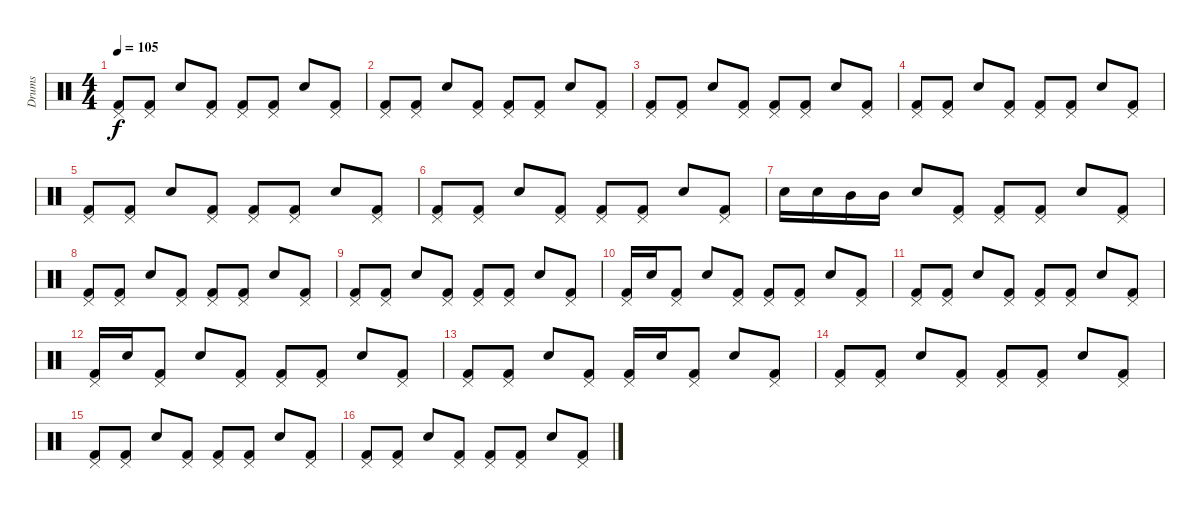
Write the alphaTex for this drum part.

\track ("Drums" "Drums") {instrument percussion}
\staff {score}
\articulation defaults
\ts (4 4)
\tempo 105
\clef neutral
\ks c
("Kick (hit) 2" "Pedal Hi-Hat (hit)").8{dy f} ("Kick (hit) 2" "Pedal Hi-Hat (hit)").8 "Snare (hit) 2".8 ("Kick (hit) 2" "Pedal Hi-Hat (hit)").8 ("Kick (hit) 2" "Pedal Hi-Hat (hit)").8 ("Kick (hit) 2" "Pedal Hi-Hat (hit)").8 "Snare (hit) 2".8 ("Kick (hit) 2" "Pedal Hi-Hat (hit)").8 |
("Kick (hit) 2" "Pedal Hi-Hat (hit)").8 ("Kick (hit) 2" "Pedal Hi-Hat (hit)").8 "Snare (hit) 2".8 ("Kick (hit) 2" "Pedal Hi-Hat (hit)").8 ("Kick (hit) 2" "Pedal Hi-Hat (hit)").8 ("Kick (hit) 2" "Pedal Hi-Hat (hit)").8 "Snare (hit) 2".8 ("Kick (hit) 2" "Pedal Hi-Hat (hit)").8 |
("Kick (hit) 2" "Pedal Hi-Hat (hit)").8 ("Kick (hit) 2" "Pedal Hi-Hat (hit)").8 "Snare (hit) 2".8 ("Kick (hit) 2" "Pedal Hi-Hat (hit)").8 ("Kick (hit) 2" "Pedal Hi-Hat (hit)").8 ("Kick (hit) 2" "Pedal Hi-Hat (hit)").8 "Snare (hit) 2".8 ("Kick (hit) 2" "Pedal Hi-Hat (hit)").8 |
("Kick (hit) 2" "Pedal Hi-Hat (hit)").8 ("Kick (hit) 2" "Pedal Hi-Hat (hit)").8 "Snare (hit) 2".8 ("Kick (hit) 2" "Pedal Hi-Hat (hit)").8 ("Kick (hit) 2" "Pedal Hi-Hat (hit)").8 ("Kick (hit) 2" "Pedal Hi-Hat (hit)").8 "Snare (hit) 2".8 ("Kick (hit) 2" "Pedal Hi-Hat (hit)").8 |
("Kick (hit) 2" "Pedal Hi-Hat (hit)").8 ("Kick (hit) 2" "Pedal Hi-Hat (hit)").8 "Snare (hit) 2".8 ("Kick (hit) 2" "Pedal Hi-Hat (hit)").8 ("Kick (hit) 2" "Pedal Hi-Hat (hit)").8 ("Kick (hit) 2" "Pedal Hi-Hat (hit)").8 "Snare (hit) 2".8 ("Kick (hit) 2" "Pedal Hi-Hat (hit)").8 |
("Kick (hit) 2" "Pedal Hi-Hat (hit)").8 ("Kick (hit) 2" "Pedal Hi-Hat (hit)").8 "Snare (hit) 2".8 ("Kick (hit) 2" "Pedal Hi-Hat (hit)").8 ("Kick (hit) 2" "Pedal Hi-Hat (hit)").8 ("Kick (hit) 2" "Pedal Hi-Hat (hit)").8 "Snare (hit) 2".8 ("Kick (hit) 2" "Pedal Hi-Hat (hit)").8 |
"Electric Snare (hit)".16 "Electric Snare (hit)".16 "Mid Tom (hit)".16 "Mid Tom (hit)".16 "Snare (hit) 2".8 ("Kick (hit) 2" "Pedal Hi-Hat (hit)").8 ("Kick (hit) 2" "Pedal Hi-Hat (hit)").8 ("Kick (hit) 2" "Pedal Hi-Hat (hit)").8 "Snare (hit) 2".8 ("Kick (hit) 2" "Pedal Hi-Hat (hit)").8 |
("Kick (hit) 2" "Pedal Hi-Hat (hit)").8 ("Kick (hit) 2" "Pedal Hi-Hat (hit)").8 "Snare (hit) 2".8 ("Kick (hit) 2" "Pedal Hi-Hat (hit)").8 ("Kick (hit) 2" "Pedal Hi-Hat (hit)").8 ("Kick (hit) 2" "Pedal Hi-Hat (hit)").8 "Snare (hit) 2".8 ("Kick (hit) 2" "Pedal Hi-Hat (hit)").8 |
("Kick (hit) 2" "Pedal Hi-Hat (hit)").8 ("Kick (hit) 2" "Pedal Hi-Hat (hit)").8 "Snare (hit) 2".8 ("Kick (hit) 2" "Pedal Hi-Hat (hit)").8 ("Kick (hit) 2" "Pedal Hi-Hat (hit)").8 ("Kick (hit) 2" "Pedal Hi-Hat (hit)").8 "Snare (hit) 2".8 ("Kick (hit) 2" "Pedal Hi-Hat (hit)").8 |
("Kick (hit) 2" "Pedal Hi-Hat (hit)").16 "Snare (hit) 2".16 ("Kick (hit) 2" "Pedal Hi-Hat (hit)").8 "Snare (hit) 2".8 ("Kick (hit) 2" "Pedal Hi-Hat (hit)").8 ("Kick (hit) 2" "Pedal Hi-Hat (hit)").8 ("Kick (hit) 2" "Pedal Hi-Hat (hit)").8 "Snare (hit) 2".8 ("Kick (hit) 2" "Pedal Hi-Hat (hit)").8 |
("Kick (hit) 2" "Pedal Hi-Hat (hit)").8 ("Kick (hit) 2" "Pedal Hi-Hat (hit)").8 "Snare (hit) 2".8 ("Kick (hit) 2" "Pedal Hi-Hat (hit)").8 ("Kick (hit) 2" "Pedal Hi-Hat (hit)").8 ("Kick (hit) 2" "Pedal Hi-Hat (hit)").8 "Snare (hit) 2".8 ("Kick (hit) 2" "Pedal Hi-Hat (hit)").8 |
("Kick (hit) 2" "Pedal Hi-Hat (hit)").16 "Snare (hit) 2".16 ("Kick (hit) 2" "Pedal Hi-Hat (hit)").8 "Snare (hit) 2".8 ("Kick (hit) 2" "Pedal Hi-Hat (hit)").8 ("Kick (hit) 2" "Pedal Hi-Hat (hit)").8 ("Kick (hit) 2" "Pedal Hi-Hat (hit)").8 "Snare (hit) 2".8 ("Kick (hit) 2" "Pedal Hi-Hat (hit)").8 |
("Kick (hit) 2" "Pedal Hi-Hat (hit)").8 ("Kick (hit) 2" "Pedal Hi-Hat (hit)").8 "Snare (hit) 2".8 ("Kick (hit) 2" "Pedal Hi-Hat (hit)").8 ("Kick (hit) 2" "Pedal Hi-Hat (hit)").16 "Snare (hit) 2".16 ("Kick (hit) 2" "Pedal Hi-Hat (hit)").8 "Snare (hit) 2".8 ("Kick (hit) 2" "Pedal Hi-Hat (hit)").8 |
("Kick (hit) 2" "Pedal Hi-Hat (hit)").8 ("Kick (hit) 2" "Pedal Hi-Hat (hit)").8 "Snare (hit) 2".8 ("Kick (hit) 2" "Pedal Hi-Hat (hit)").8 ("Kick (hit) 2" "Pedal Hi-Hat (hit)").8 ("Kick (hit) 2" "Pedal Hi-Hat (hit)").8 "Snare (hit) 2".8 ("Kick (hit) 2" "Pedal Hi-Hat (hit)").8 |
("Kick (hit) 2" "Pedal Hi-Hat (hit)").8 ("Kick (hit) 2" "Pedal Hi-Hat (hit)").8 "Snare (hit) 2".8 ("Kick (hit) 2" "Pedal Hi-Hat (hit)").8 ("Kick (hit) 2" "Pedal Hi-Hat (hit)").8 ("Kick (hit) 2" "Pedal Hi-Hat (hit)").8 "Snare (hit) 2".8 ("Kick (hit) 2" "Pedal Hi-Hat (hit)").8 |
("Kick (hit) 2" "Pedal Hi-Hat (hit)").8 ("Kick (hit) 2" "Pedal Hi-Hat (hit)").8 "Snare (hit) 2".8 ("Kick (hit) 2" "Pedal Hi-Hat (hit)").8 ("Kick (hit) 2" "Pedal Hi-Hat (hit)").8 ("Kick (hit) 2" "Pedal Hi-Hat (hit)").8 "Snare (hit) 2".8 ("Kick (hit) 2" "Pedal Hi-Hat (hit)").8
